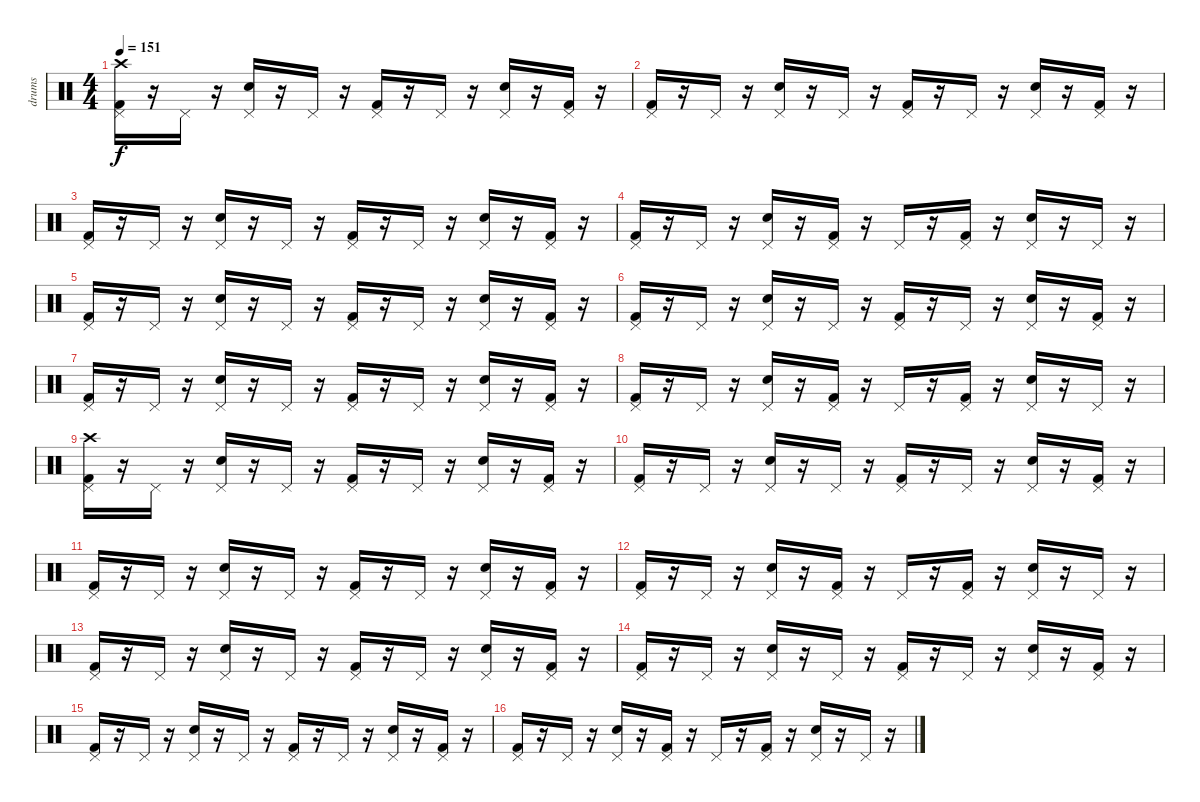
\track ("drums" "drums") {instrument percussion}
\staff {score}
\articulation defaults
\ts (4 4)
\tempo 151
\clef neutral
\ks c
("Kick (hit) 2" "Pedal Hi-Hat (hit)" "Crash high (hit)").16{dy f} r.16 "Pedal Hi-Hat (hit)".16 r.16 ("Electric Snare (hit)" "Pedal Hi-Hat (hit)").16 r.16 "Pedal Hi-Hat (hit)".16 r.16 ("Kick (hit) 2" "Pedal Hi-Hat (hit)").16 r.16 "Pedal Hi-Hat (hit)".16 r.16 ("Electric Snare (hit)" "Pedal Hi-Hat (hit)").16 r.16 ("Kick (hit) 2" "Pedal Hi-Hat (hit)").16 r.16 |
("Kick (hit) 2" "Pedal Hi-Hat (hit)").16 r.16 "Pedal Hi-Hat (hit)".16 r.16 ("Electric Snare (hit)" "Pedal Hi-Hat (hit)").16 r.16 "Pedal Hi-Hat (hit)".16 r.16 ("Kick (hit) 2" "Pedal Hi-Hat (hit)").16 r.16 "Pedal Hi-Hat (hit)".16 r.16 ("Electric Snare (hit)" "Pedal Hi-Hat (hit)").16 r.16 ("Kick (hit) 2" "Pedal Hi-Hat (hit)").16 r.16 |
("Kick (hit) 2" "Pedal Hi-Hat (hit)").16 r.16 "Pedal Hi-Hat (hit)".16 r.16 ("Electric Snare (hit)" "Pedal Hi-Hat (hit)").16 r.16 "Pedal Hi-Hat (hit)".16 r.16 ("Kick (hit) 2" "Pedal Hi-Hat (hit)").16 r.16 "Pedal Hi-Hat (hit)".16 r.16 ("Electric Snare (hit)" "Pedal Hi-Hat (hit)").16 r.16 ("Kick (hit) 2" "Pedal Hi-Hat (hit)").16 r.16 |
("Kick (hit) 2" "Pedal Hi-Hat (hit)").16 r.16 "Pedal Hi-Hat (hit)".16 r.16 ("Electric Snare (hit)" "Pedal Hi-Hat (hit)").16 r.16 ("Kick (hit) 2" "Pedal Hi-Hat (hit)").16 r.16 "Pedal Hi-Hat (hit)".16 r.16 ("Kick (hit) 2" "Pedal Hi-Hat (hit)").16 r.16 ("Electric Snare (hit)" "Pedal Hi-Hat (hit)").16 r.16 "Pedal Hi-Hat (hit)".16 r.16 |
("Kick (hit) 2" "Pedal Hi-Hat (hit)").16 r.16 "Pedal Hi-Hat (hit)".16 r.16 ("Electric Snare (hit)" "Pedal Hi-Hat (hit)").16 r.16 "Pedal Hi-Hat (hit)".16 r.16 ("Kick (hit) 2" "Pedal Hi-Hat (hit)").16 r.16 "Pedal Hi-Hat (hit)".16 r.16 ("Electric Snare (hit)" "Pedal Hi-Hat (hit)").16 r.16 ("Kick (hit) 2" "Pedal Hi-Hat (hit)").16 r.16 |
("Kick (hit) 2" "Pedal Hi-Hat (hit)").16 r.16 "Pedal Hi-Hat (hit)".16 r.16 ("Electric Snare (hit)" "Pedal Hi-Hat (hit)").16 r.16 "Pedal Hi-Hat (hit)".16 r.16 ("Kick (hit) 2" "Pedal Hi-Hat (hit)").16 r.16 "Pedal Hi-Hat (hit)".16 r.16 ("Electric Snare (hit)" "Pedal Hi-Hat (hit)").16 r.16 ("Kick (hit) 2" "Pedal Hi-Hat (hit)").16 r.16 |
("Kick (hit) 2" "Pedal Hi-Hat (hit)").16 r.16 "Pedal Hi-Hat (hit)".16 r.16 ("Electric Snare (hit)" "Pedal Hi-Hat (hit)").16 r.16 "Pedal Hi-Hat (hit)".16 r.16 ("Kick (hit) 2" "Pedal Hi-Hat (hit)").16 r.16 "Pedal Hi-Hat (hit)".16 r.16 ("Electric Snare (hit)" "Pedal Hi-Hat (hit)").16 r.16 ("Kick (hit) 2" "Pedal Hi-Hat (hit)").16 r.16 |
("Kick (hit) 2" "Pedal Hi-Hat (hit)").16 r.16 "Pedal Hi-Hat (hit)".16 r.16 ("Electric Snare (hit)" "Pedal Hi-Hat (hit)").16 r.16 ("Kick (hit) 2" "Pedal Hi-Hat (hit)").16 r.16 "Pedal Hi-Hat (hit)".16 r.16 ("Kick (hit) 2" "Pedal Hi-Hat (hit)").16 r.16 ("Electric Snare (hit)" "Pedal Hi-Hat (hit)").16 r.16 "Pedal Hi-Hat (hit)".16 r.16 |
("Kick (hit) 2" "Pedal Hi-Hat (hit)" "Crash high (hit)").16 r.16 "Pedal Hi-Hat (hit)".16 r.16 ("Electric Snare (hit)" "Pedal Hi-Hat (hit)").16 r.16 "Pedal Hi-Hat (hit)".16 r.16 ("Kick (hit) 2" "Pedal Hi-Hat (hit)").16 r.16 "Pedal Hi-Hat (hit)".16 r.16 ("Electric Snare (hit)" "Pedal Hi-Hat (hit)").16 r.16 ("Kick (hit) 2" "Pedal Hi-Hat (hit)").16 r.16 |
("Kick (hit) 2" "Pedal Hi-Hat (hit)").16 r.16 "Pedal Hi-Hat (hit)".16 r.16 ("Electric Snare (hit)" "Pedal Hi-Hat (hit)").16 r.16 "Pedal Hi-Hat (hit)".16 r.16 ("Kick (hit) 2" "Pedal Hi-Hat (hit)").16 r.16 "Pedal Hi-Hat (hit)".16 r.16 ("Electric Snare (hit)" "Pedal Hi-Hat (hit)").16 r.16 ("Kick (hit) 2" "Pedal Hi-Hat (hit)").16 r.16 |
("Kick (hit) 2" "Pedal Hi-Hat (hit)").16 r.16 "Pedal Hi-Hat (hit)".16 r.16 ("Electric Snare (hit)" "Pedal Hi-Hat (hit)").16 r.16 "Pedal Hi-Hat (hit)".16 r.16 ("Kick (hit) 2" "Pedal Hi-Hat (hit)").16 r.16 "Pedal Hi-Hat (hit)".16 r.16 ("Electric Snare (hit)" "Pedal Hi-Hat (hit)").16 r.16 ("Kick (hit) 2" "Pedal Hi-Hat (hit)").16 r.16 |
("Kick (hit) 2" "Pedal Hi-Hat (hit)").16 r.16 "Pedal Hi-Hat (hit)".16 r.16 ("Electric Snare (hit)" "Pedal Hi-Hat (hit)").16 r.16 ("Kick (hit) 2" "Pedal Hi-Hat (hit)").16 r.16 "Pedal Hi-Hat (hit)".16 r.16 ("Kick (hit) 2" "Pedal Hi-Hat (hit)").16 r.16 ("Electric Snare (hit)" "Pedal Hi-Hat (hit)").16 r.16 "Pedal Hi-Hat (hit)".16 r.16 |
("Kick (hit) 2" "Pedal Hi-Hat (hit)").16 r.16 "Pedal Hi-Hat (hit)".16 r.16 ("Electric Snare (hit)" "Pedal Hi-Hat (hit)").16 r.16 "Pedal Hi-Hat (hit)".16 r.16 ("Kick (hit) 2" "Pedal Hi-Hat (hit)").16 r.16 "Pedal Hi-Hat (hit)".16 r.16 ("Electric Snare (hit)" "Pedal Hi-Hat (hit)").16 r.16 ("Kick (hit) 2" "Pedal Hi-Hat (hit)").16 r.16 |
("Kick (hit) 2" "Pedal Hi-Hat (hit)").16 r.16 "Pedal Hi-Hat (hit)".16 r.16 ("Electric Snare (hit)" "Pedal Hi-Hat (hit)").16 r.16 "Pedal Hi-Hat (hit)".16 r.16 ("Kick (hit) 2" "Pedal Hi-Hat (hit)").16 r.16 "Pedal Hi-Hat (hit)".16 r.16 ("Electric Snare (hit)" "Pedal Hi-Hat (hit)").16 r.16 ("Kick (hit) 2" "Pedal Hi-Hat (hit)").16 r.16 |
("Kick (hit) 2" "Pedal Hi-Hat (hit)").16 r.16 "Pedal Hi-Hat (hit)".16 r.16 ("Electric Snare (hit)" "Pedal Hi-Hat (hit)").16 r.16 "Pedal Hi-Hat (hit)".16 r.16 ("Kick (hit) 2" "Pedal Hi-Hat (hit)").16 r.16 "Pedal Hi-Hat (hit)".16 r.16 ("Electric Snare (hit)" "Pedal Hi-Hat (hit)").16 r.16 ("Kick (hit) 2" "Pedal Hi-Hat (hit)").16 r.16 |
("Kick (hit) 2" "Pedal Hi-Hat (hit)").16 r.16 "Pedal Hi-Hat (hit)".16 r.16 ("Electric Snare (hit)" "Pedal Hi-Hat (hit)").16 r.16 ("Kick (hit) 2" "Pedal Hi-Hat (hit)").16 r.16 "Pedal Hi-Hat (hit)".16 r.16 ("Kick (hit) 2" "Pedal Hi-Hat (hit)").16 r.16 ("Electric Snare (hit)" "Pedal Hi-Hat (hit)").16 r.16 "Pedal Hi-Hat (hit)".16 r.16
